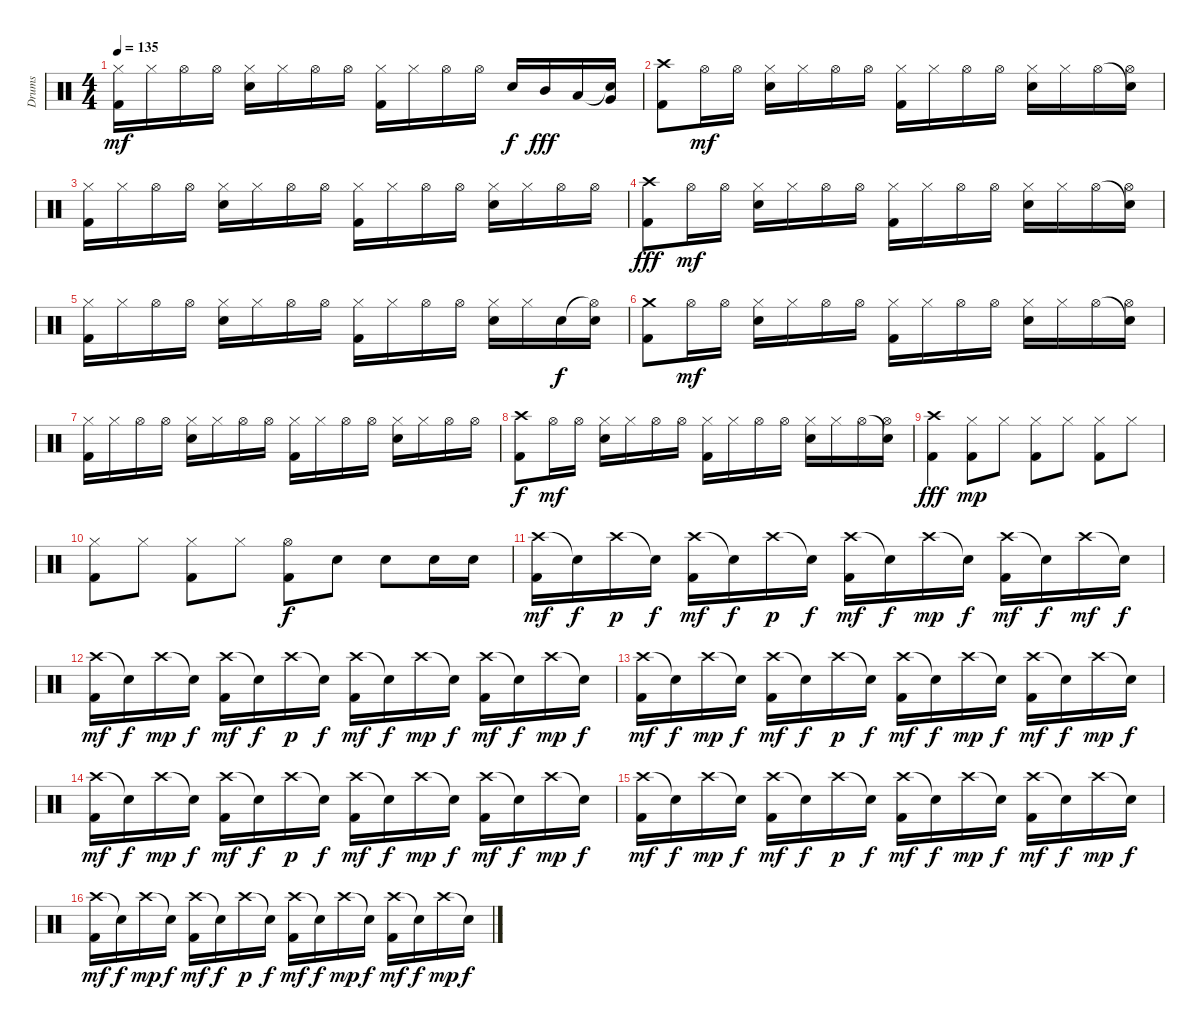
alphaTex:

\track ("Drums" "Drums") {instrument percussion}
\staff {score}
\articulation defaults
\ts (4 4)
\tempo 135
\clef neutral
\ks c
("Hi-Hat (closed)" "Kick (hit) 2").16{dy mf} "Hi-Hat (closed)".16 "Hi-Hat (open)".16 "Hi-Hat (open)".16 ("Hi-Hat (closed)" "Snare (hit) 2").16 "Hi-Hat (closed)".16 "Hi-Hat (open)".16 "Hi-Hat (open)".16 ("Hi-Hat (closed)" "Kick (hit) 2").16 "Hi-Hat (closed)".16 "Hi-Hat (open)".16 "Hi-Hat (open)".16 "Snare (hit) 2".16{dy f} "Mid Tom (hit)".16{dy fff} "Low Tom (hit)".16 ("Snare (hit)"{t} "Very Low Tom (hit)").16 |
("Crash high (hit)" "Kick (hit) 2").8 "Hi-Hat (open)".16{dy mf} "Hi-Hat (open)".16 ("Hi-Hat (closed)" "Snare (hit) 2").16 "Hi-Hat (closed)".16 "Hi-Hat (open)".16 "Hi-Hat (open)".16 ("Hi-Hat (closed)" "Kick (hit) 2").16 "Hi-Hat (closed)".16 "Hi-Hat (open)".16 "Hi-Hat (open)".16 ("Hi-Hat (closed)" "Snare (hit) 2").16 "Hi-Hat (closed)".16 "Hi-Hat (open)".16 ("Snare (hit)"{t} "Hi-Hat (open)").16 |
("Hi-Hat (closed)" "Kick (hit) 2").16 "Hi-Hat (closed)".16 "Hi-Hat (open)".16 "Hi-Hat (open)".16 ("Hi-Hat (closed)" "Snare (hit) 2").16 "Hi-Hat (closed)".16 "Hi-Hat (open)".16 "Hi-Hat (open)".16 ("Hi-Hat (closed)" "Kick (hit) 2").16 "Hi-Hat (closed)".16 "Hi-Hat (open)".16 "Hi-Hat (open)".16 ("Hi-Hat (closed)" "Snare (hit) 2").16 "Hi-Hat (closed)".16 "Hi-Hat (open)".16 "Hi-Hat (open)".16 |
("Crash high (hit)" "Kick (hit) 2").8{dy fff} "Hi-Hat (open)".16{dy mf} "Hi-Hat (open)".16 ("Hi-Hat (closed)" "Snare (hit) 2").16 "Hi-Hat (closed)".16 "Hi-Hat (open)".16 "Hi-Hat (open)".16 ("Hi-Hat (closed)" "Kick (hit) 2").16 "Hi-Hat (closed)".16 "Hi-Hat (open)".16 "Hi-Hat (open)".16 ("Hi-Hat (closed)" "Snare (hit) 2").16 "Hi-Hat (closed)".16 "Hi-Hat (open)".16 ("Snare (hit)"{t} "Hi-Hat (open)").16 |
("Hi-Hat (closed)" "Kick (hit) 2").16 "Hi-Hat (closed)".16 "Hi-Hat (open)".16 "Hi-Hat (open)".16 ("Hi-Hat (closed)" "Snare (hit) 2").16 "Hi-Hat (closed)".16 "Hi-Hat (open)".16 "Hi-Hat (open)".16 ("Hi-Hat (closed)" "Kick (hit) 2").16 "Hi-Hat (closed)".16 "Hi-Hat (open)".16 "Hi-Hat (open)".16 ("Hi-Hat (closed)" "Snare (hit) 2").16 "Hi-Hat (closed)".16 "Snare (hit) 2".16{dy f} ("Hi-Hat (open)"{t} "Snare (hit) 2").16 |
("Crash medium (hit)" "Kick (hit) 2").8 "Hi-Hat (open)".16{dy mf} "Hi-Hat (open)".16 ("Hi-Hat (closed)" "Snare (hit) 2").16 "Hi-Hat (closed)".16 "Hi-Hat (open)".16 "Hi-Hat (open)".16 ("Hi-Hat (closed)" "Kick (hit) 2").16 "Hi-Hat (closed)".16 "Hi-Hat (open)".16 "Hi-Hat (open)".16 ("Hi-Hat (closed)" "Snare (hit) 2").16 "Hi-Hat (closed)".16 "Hi-Hat (open)".16 ("Snare (hit)"{t} "Hi-Hat (open)").16 |
("Hi-Hat (closed)" "Kick (hit) 2").16 "Hi-Hat (closed)".16 "Hi-Hat (open)".16 "Hi-Hat (open)".16 ("Hi-Hat (closed)" "Snare (hit) 2").16 "Hi-Hat (closed)".16 "Hi-Hat (open)".16 "Hi-Hat (open)".16 ("Hi-Hat (closed)" "Kick (hit) 2").16 "Hi-Hat (closed)".16 "Hi-Hat (open)".16 "Hi-Hat (open)".16 ("Hi-Hat (closed)" "Snare (hit) 2").16 "Hi-Hat (closed)".16 "Hi-Hat (open)".16 "Hi-Hat (open)".16 |
("Crash high (hit)" "Kick (hit) 2").8{dy f} "Hi-Hat (open)".16{dy mf} "Hi-Hat (open)".16 ("Hi-Hat (closed)" "Snare (hit) 2").16 "Hi-Hat (closed)".16 "Hi-Hat (open)".16 "Hi-Hat (open)".16 ("Hi-Hat (closed)" "Kick (hit) 2").16 "Hi-Hat (closed)".16 "Hi-Hat (open)".16 "Hi-Hat (open)".16 ("Hi-Hat (closed)" "Snare (hit) 2").16 "Hi-Hat (closed)".16 "Hi-Hat (open)".16 ("Snare (hit)"{t} "Hi-Hat (open)").16 |
("Crash high (hit)" "Kick (hit) 2").4{dy fff} ("Hi-Hat (closed)" "Kick (hit) 2").8{dy mp} "Hi-Hat (closed)".8 ("Hi-Hat (closed)" "Kick (hit) 2").8 "Hi-Hat (closed)".8 ("Hi-Hat (closed)" "Kick (hit) 2").8 "Hi-Hat (closed)".8 |
("Hi-Hat (closed)" "Kick (hit) 2").8 "Hi-Hat (closed)".8 ("Hi-Hat (closed)" "Kick (hit) 2").8 "Hi-Hat (closed)".8 ("Hi-Hat (open)" "Kick (hit) 2").8{dy f} "Snare (hit) 2".8 "Snare (hit) 2".8 "Snare (hit) 2".16 "Snare (hit) 2".16 |
("Crash high (hit)" "Kick (hit) 2").16{dy mf} "Snare (hit)"{t}.16{dy f} "Crash high (hit)".16{dy p} "Snare (hit)"{t}.16{dy f} ("Crash high (hit)" "Kick (hit) 2").16{dy mf} "Snare (hit)"{t}.16{dy f} "Crash high (hit)".16{dy p} "Snare (hit)"{t}.16{dy f} ("Crash high (hit)" "Kick (hit) 2").16{dy mf} "Snare (hit)"{t}.16{dy f} "Crash high (hit)".16{dy mp} "Snare (hit)"{t}.16{dy f} ("Crash high (hit)" "Kick (hit) 2").16{dy mf} "Snare (hit)"{t}.16{dy f} "Crash high (hit)".16{dy mf} "Snare (hit)"{t}.16{dy f} |
("Crash high (hit)" "Kick (hit) 2").16{dy mf} "Snare (hit)"{t}.16{dy f} "Crash high (hit)".16{dy mp} "Snare (hit)"{t}.16{dy f} ("Crash high (hit)" "Kick (hit) 2").16{dy mf} "Snare (hit)"{t}.16{dy f} "Crash high (hit)".16{dy p} "Snare (hit)"{t}.16{dy f} ("Crash high (hit)" "Kick (hit) 2").16{dy mf} "Snare (hit)"{t}.16{dy f} "Crash high (hit)".16{dy mp} "Snare (hit)"{t}.16{dy f} ("Crash high (hit)" "Kick (hit) 2").16{dy mf} "Snare (hit)"{t}.16{dy f} "Crash high (hit)".16{dy mp} "Snare (hit)"{t}.16{dy f} |
("Crash high (hit)" "Kick (hit) 2").16{dy mf} "Snare (hit)"{t}.16{dy f} "Crash high (hit)".16{dy mp} "Snare (hit)"{t}.16{dy f} ("Crash high (hit)" "Kick (hit) 2").16{dy mf} "Snare (hit)"{t}.16{dy f} "Crash high (hit)".16{dy p} "Snare (hit)"{t}.16{dy f} ("Crash high (hit)" "Kick (hit) 2").16{dy mf} "Snare (hit)"{t}.16{dy f} "Crash high (hit)".16{dy mp} "Snare (hit)"{t}.16{dy f} ("Crash high (hit)" "Kick (hit) 2").16{dy mf} "Snare (hit)"{t}.16{dy f} "Crash high (hit)".16{dy mp} "Snare (hit)"{t}.16{dy f} |
("Crash high (hit)" "Kick (hit) 2").16{dy mf} "Snare (hit)"{t}.16{dy f} "Crash high (hit)".16{dy mp} "Snare (hit)"{t}.16{dy f} ("Crash high (hit)" "Kick (hit) 2").16{dy mf} "Snare (hit)"{t}.16{dy f} "Crash high (hit)".16{dy p} "Snare (hit)"{t}.16{dy f} ("Crash high (hit)" "Kick (hit) 2").16{dy mf} "Snare (hit)"{t}.16{dy f} "Crash high (hit)".16{dy mp} "Snare (hit)"{t}.16{dy f} ("Crash high (hit)" "Kick (hit) 2").16{dy mf} "Snare (hit)"{t}.16{dy f} "Crash high (hit)".16{dy mp} "Snare (hit)"{t}.16{dy f} |
("Crash high (hit)" "Kick (hit) 2").16{dy mf} "Snare (hit)"{t}.16{dy f} "Crash high (hit)".16{dy mp} "Snare (hit)"{t}.16{dy f} ("Crash high (hit)" "Kick (hit) 2").16{dy mf} "Snare (hit)"{t}.16{dy f} "Crash high (hit)".16{dy p} "Snare (hit)"{t}.16{dy f} ("Crash high (hit)" "Kick (hit) 2").16{dy mf} "Snare (hit)"{t}.16{dy f} "Crash high (hit)".16{dy mp} "Snare (hit)"{t}.16{dy f} ("Crash high (hit)" "Kick (hit) 2").16{dy mf} "Snare (hit)"{t}.16{dy f} "Crash high (hit)".16{dy mp} "Snare (hit)"{t}.16{dy f} |
("Crash high (hit)" "Kick (hit) 2").16{dy mf} "Snare (hit)"{t}.16{dy f} "Crash high (hit)".16{dy mp} "Snare (hit)"{t}.16{dy f} ("Crash high (hit)" "Kick (hit) 2").16{dy mf} "Snare (hit)"{t}.16{dy f} "Crash high (hit)".16{dy p} "Snare (hit)"{t}.16{dy f} ("Crash high (hit)" "Kick (hit) 2").16{dy mf} "Snare (hit)"{t}.16{dy f} "Crash high (hit)".16{dy mp} "Snare (hit)"{t}.16{dy f} ("Crash high (hit)" "Kick (hit) 2").16{dy mf} "Snare (hit)"{t}.16{dy f} "Crash high (hit)".16{dy mp} "Snare (hit)"{t}.16{dy f}
